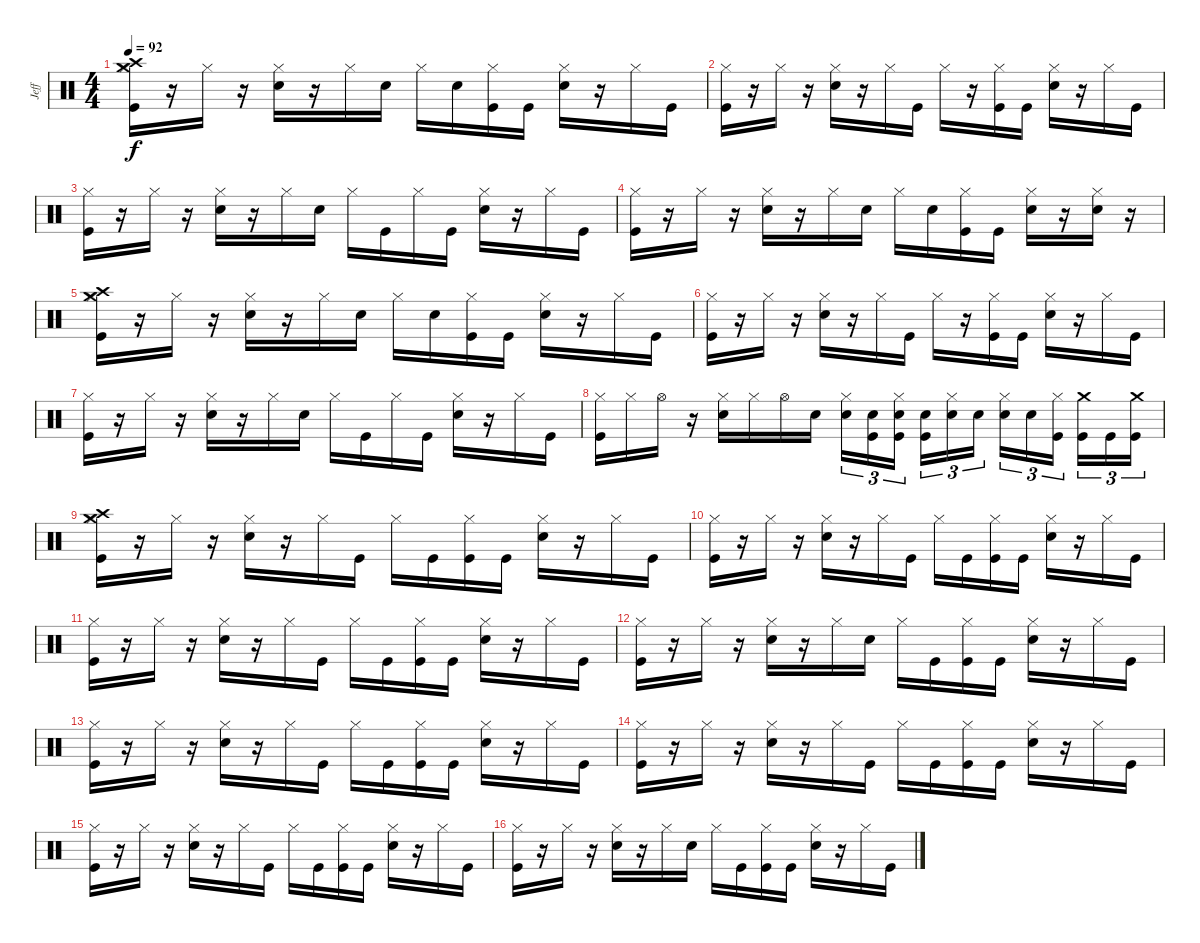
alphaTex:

\track ("Jeff" "Jeff") {instrument percussion}
\staff {score}
\articulation defaults
\ts (4 4)
\tempo 92
\clef neutral
\ks c
("Crash medium (hit)" "Crash high (hit)" "Hi-Hat (closed)" "Kick (hit)").16{dy f} r.16 "Hi-Hat (closed)".16 r.16 ("Electric Snare (hit)" "Hi-Hat (closed)").16 r.16 "Hi-Hat (closed)".16 "Electric Snare (hit)".16 "Hi-Hat (closed)".16 "Electric Snare (hit)".16 ("Hi-Hat (closed)" "Kick (hit)").16 "Kick (hit)".16 ("Electric Snare (hit)" "Hi-Hat (closed)").16 r.16 "Hi-Hat (closed)".16 "Kick (hit)".16 |
("Hi-Hat (closed)" "Kick (hit)").16 r.16 "Hi-Hat (closed)".16 r.16 ("Electric Snare (hit)" "Hi-Hat (closed)").16 r.16 "Hi-Hat (closed)".16 "Kick (hit)".16 "Hi-Hat (closed)".16 r.16 ("Hi-Hat (closed)" "Kick (hit)").16 "Kick (hit)".16 ("Electric Snare (hit)" "Hi-Hat (closed)").16 r.16 "Hi-Hat (closed)".16 "Kick (hit)".16 |
("Hi-Hat (closed)" "Kick (hit)").16 r.16 "Hi-Hat (closed)".16 r.16 ("Electric Snare (hit)" "Hi-Hat (closed)").16 r.16 "Hi-Hat (closed)".16 "Electric Snare (hit)".16 "Hi-Hat (closed)".16 "Kick (hit)".16 "Hi-Hat (closed)".16 "Kick (hit)".16 ("Electric Snare (hit)" "Hi-Hat (closed)").16 r.16 "Hi-Hat (closed)".16 "Kick (hit)".16 |
("Hi-Hat (closed)" "Kick (hit)").16 r.16 "Hi-Hat (closed)".16 r.16 ("Electric Snare (hit)" "Hi-Hat (closed)").16 r.16 "Hi-Hat (closed)".16 "Electric Snare (hit)".16 "Hi-Hat (closed)".16 "Electric Snare (hit)".16 ("Hi-Hat (closed)" "Kick (hit)").16 "Kick (hit)".16 ("Electric Snare (hit)" "Hi-Hat (closed)").16 r.16 ("Electric Snare (hit)" "Hi-Hat (closed)").16 r.16 |
("Crash medium (hit)" "Crash high (hit)" "Hi-Hat (closed)" "Kick (hit)").16 r.16 "Hi-Hat (closed)".16 r.16 ("Electric Snare (hit)" "Hi-Hat (closed)").16 r.16 "Hi-Hat (closed)".16 "Electric Snare (hit)".16 "Hi-Hat (closed)".16 "Electric Snare (hit)".16 ("Hi-Hat (closed)" "Kick (hit)").16 "Kick (hit)".16 ("Electric Snare (hit)" "Hi-Hat (closed)").16 r.16 "Hi-Hat (closed)".16 "Kick (hit)".16 |
("Hi-Hat (closed)" "Kick (hit)").16 r.16 "Hi-Hat (closed)".16 r.16 ("Electric Snare (hit)" "Hi-Hat (closed)").16 r.16 "Hi-Hat (closed)".16 "Kick (hit)".16 "Hi-Hat (closed)".16 r.16 ("Hi-Hat (closed)" "Kick (hit)").16 "Kick (hit)".16 ("Electric Snare (hit)" "Hi-Hat (closed)").16 r.16 "Hi-Hat (closed)".16 "Kick (hit)".16 |
("Hi-Hat (closed)" "Kick (hit)").16 r.16 "Hi-Hat (closed)".16 r.16 ("Electric Snare (hit)" "Hi-Hat (closed)").16 r.16 "Hi-Hat (closed)".16 "Electric Snare (hit)".16 "Hi-Hat (closed)".16 "Kick (hit)".16 "Hi-Hat (closed)".16 "Kick (hit)".16 ("Electric Snare (hit)" "Hi-Hat (closed)").16 r.16 "Hi-Hat (closed)".16 "Kick (hit)".16 |
("Hi-Hat (closed)" "Kick (hit)").16 "Hi-Hat (closed)".16 "Hi-Hat (open)".16 r.16 ("Electric Snare (hit)" "Hi-Hat (closed)").16 "Hi-Hat (closed)".16 "Hi-Hat (open)".16 "Electric Snare (hit)".16 ("Electric Snare (hit)" "Hi-Hat (closed)").16{tu (3 2)} ("Electric Snare (hit)" "Kick (hit)").16{tu (3 2)} ("Electric Snare (hit)" "Hi-Hat (closed)" "Kick (hit)").16{tu (3 2)} ("Electric Snare (hit)" "Kick (hit)").16{tu (3 2)} ("Electric Snare (hit)" "Hi-Hat (closed)").16{tu (3 2)} "Electric Snare (hit)".16{tu (3 2)} ("Electric Snare (hit)" "Hi-Hat (closed)").16{tu (3 2)} "Electric Snare (hit)".16{tu (3 2)} ("Hi-Hat (closed)" "Kick (hit)").16{tu (3 2)} ("Crash medium (hit)" "Kick (hit)").16{tu (3 2)} "Kick (hit)".16{tu (3 2)} ("Crash medium (hit)" "Kick (hit)").16{tu (3 2)} |
("Crash medium (hit)" "Hi-Hat (closed)" "Crash high (hit)" "Kick (hit)").16 r.16 "Hi-Hat (closed)".16 r.16 ("Electric Snare (hit)" "Hi-Hat (closed)").16 r.16 "Hi-Hat (closed)".16 "Kick (hit)".16 "Hi-Hat (closed)".16 "Kick (hit)".16 ("Hi-Hat (closed)" "Kick (hit)").16 "Kick (hit)".16 ("Electric Snare (hit)" "Hi-Hat (closed)").16 r.16 "Hi-Hat (closed)".16 "Kick (hit)".16 |
("Hi-Hat (closed)" "Kick (hit)").16 r.16 "Hi-Hat (closed)".16 r.16 ("Electric Snare (hit)" "Hi-Hat (closed)").16 r.16 "Hi-Hat (closed)".16 "Kick (hit)".16 "Hi-Hat (closed)".16 "Kick (hit)".16 ("Hi-Hat (closed)" "Kick (hit)").16 "Kick (hit)".16 ("Electric Snare (hit)" "Hi-Hat (closed)").16 r.16 "Hi-Hat (closed)".16 "Kick (hit)".16 |
("Hi-Hat (closed)" "Kick (hit)").16 r.16 "Hi-Hat (closed)".16 r.16 ("Electric Snare (hit)" "Hi-Hat (closed)").16 r.16 "Hi-Hat (closed)".16 "Kick (hit)".16 "Hi-Hat (closed)".16 "Kick (hit)".16 ("Hi-Hat (closed)" "Kick (hit)").16 "Kick (hit)".16 ("Electric Snare (hit)" "Hi-Hat (closed)").16 r.16 "Hi-Hat (closed)".16 "Kick (hit)".16 |
("Hi-Hat (closed)" "Kick (hit)").16 r.16 "Hi-Hat (closed)".16 r.16 ("Electric Snare (hit)" "Hi-Hat (closed)").16 r.16 "Hi-Hat (closed)".16 "Electric Snare (hit)".16 "Hi-Hat (closed)".16 "Kick (hit)".16 ("Hi-Hat (closed)" "Kick (hit)").16 "Kick (hit)".16 ("Electric Snare (hit)" "Hi-Hat (closed)").16 r.16 "Hi-Hat (closed)".16 "Kick (hit)".16 |
("Hi-Hat (closed)" "Kick (hit)").16 r.16 "Hi-Hat (closed)".16 r.16 ("Electric Snare (hit)" "Hi-Hat (closed)").16 r.16 "Hi-Hat (closed)".16 "Kick (hit)".16 "Hi-Hat (closed)".16 "Kick (hit)".16 ("Hi-Hat (closed)" "Kick (hit)").16 "Kick (hit)".16 ("Electric Snare (hit)" "Hi-Hat (closed)").16 r.16 "Hi-Hat (closed)".16 "Kick (hit)".16 |
("Hi-Hat (closed)" "Kick (hit)").16 r.16 "Hi-Hat (closed)".16 r.16 ("Electric Snare (hit)" "Hi-Hat (closed)").16 r.16 "Hi-Hat (closed)".16 "Kick (hit)".16 "Hi-Hat (closed)".16 "Kick (hit)".16 ("Hi-Hat (closed)" "Kick (hit)").16 "Kick (hit)".16 ("Electric Snare (hit)" "Hi-Hat (closed)").16 r.16 "Hi-Hat (closed)".16 "Kick (hit)".16 |
("Hi-Hat (closed)" "Kick (hit)").16 r.16 "Hi-Hat (closed)".16 r.16 ("Electric Snare (hit)" "Hi-Hat (closed)").16 r.16 "Hi-Hat (closed)".16 "Kick (hit)".16 "Hi-Hat (closed)".16 "Kick (hit)".16 ("Hi-Hat (closed)" "Kick (hit)").16 "Kick (hit)".16 ("Electric Snare (hit)" "Hi-Hat (closed)").16 r.16 "Hi-Hat (closed)".16 "Kick (hit)".16 |
("Hi-Hat (closed)" "Kick (hit)").16 r.16 "Hi-Hat (closed)".16 r.16 ("Electric Snare (hit)" "Hi-Hat (closed)").16 r.16 "Hi-Hat (closed)".16 "Electric Snare (hit)".16 "Hi-Hat (closed)".16 "Kick (hit)".16 ("Hi-Hat (closed)" "Kick (hit)").16 "Kick (hit)".16 ("Electric Snare (hit)" "Hi-Hat (closed)").16 r.16 "Hi-Hat (closed)".16 "Kick (hit)".16
